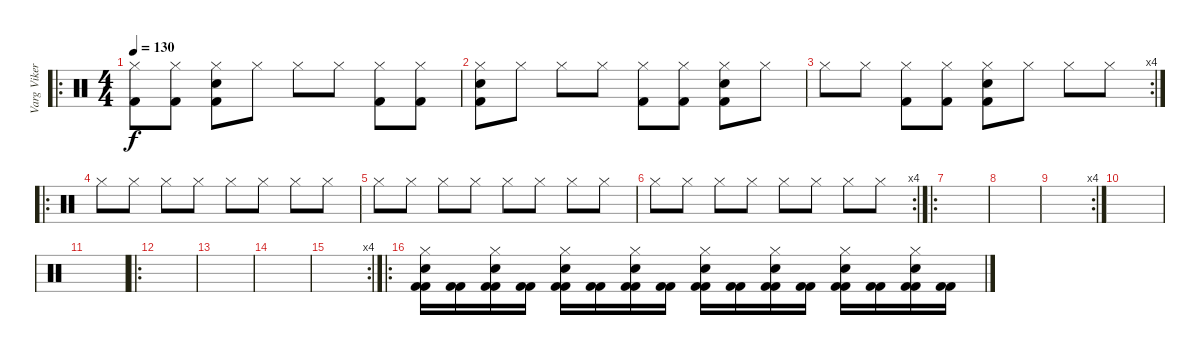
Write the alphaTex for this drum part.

\track ("Varg Vikernes (Drums)" "Varg Viker") {instrument percussion}
\staff {score}
\articulation defaults
\ro
\ts (4 4)
\tempo 130
\clef neutral
\ks c
("Hi-Hat (closed)" "Kick (hit) 2").8{dy f} ("Hi-Hat (closed)" "Kick (hit) 2").8 ("Hi-Hat (closed)" "Electric Snare (hit)" "Kick (hit) 2").8 "Hi-Hat (closed)".8 "Hi-Hat (closed)".8 "Hi-Hat (closed)".8 ("Hi-Hat (closed)" "Kick (hit) 2").8 ("Hi-Hat (closed)" "Kick (hit) 2").8 |
("Hi-Hat (closed)" "Electric Snare (hit)" "Kick (hit) 2").8 "Hi-Hat (closed)".8 "Hi-Hat (closed)".8 "Hi-Hat (closed)".8 ("Hi-Hat (closed)" "Kick (hit) 2").8 ("Hi-Hat (closed)" "Kick (hit) 2").8 ("Hi-Hat (closed)" "Electric Snare (hit)" "Kick (hit) 2").8 "Hi-Hat (closed)".8 |
\rc 4 "Hi-Hat (closed)".8 "Hi-Hat (closed)".8
("Hi-Hat (closed)" "Kick (hit) 2").8 ("Hi-Hat (closed)" "Kick (hit) 2").8 ("Hi-Hat (closed)" "Electric Snare (hit)" "Kick (hit) 2").8 "Hi-Hat (closed)".8 "Hi-Hat (closed)".8 "Hi-Hat (closed)".8 |
\ro "Hi-Hat (closed)".8 "Hi-Hat (closed)".8 "Hi-Hat (closed)".8 "Hi-Hat (closed)".8 "Hi-Hat (closed)".8 "Hi-Hat (closed)".8 "Hi-Hat (closed)".8 "Hi-Hat (closed)".8
|
"Hi-Hat (closed)".8 "Hi-Hat (closed)".8 "Hi-Hat (closed)".8 "Hi-Hat (closed)".8 "Hi-Hat (closed)".8 "Hi-Hat (closed)".8 "Hi-Hat (closed)".8 "Hi-Hat (closed)".8 |
\rc 4 "Hi-Hat (closed)".8 "Hi-Hat (closed)".8 "Hi-Hat (closed)".8 "Hi-Hat (closed)".8 "Hi-Hat (closed)".8 "Hi-Hat (closed)".8 "Hi-Hat (closed)".8 "Hi-Hat (closed)".8
|
\ro
|
|
\rc 4
|
|
|
\ro
|
|
|
\rc 4
|
\ro
("Kick (hit) 2" "Kick (hit) 2" "Electric Snare (hit)" "Hi-Hat (closed)").16 ("Kick (hit) 2" "Kick (hit) 2").16 ("Kick (hit) 2" "Kick (hit) 2" "Electric Snare (hit)" "Hi-Hat (closed)").16 ("Kick (hit) 2" "Kick (hit) 2").16 ("Kick (hit) 2" "Kick (hit) 2" "Electric Snare (hit)" "Hi-Hat (closed)").16 ("Kick (hit) 2" "Kick (hit) 2").16 ("Kick (hit) 2" "Kick (hit) 2" "Electric Snare (hit)" "Hi-Hat (closed)").16 ("Kick (hit) 2" "Kick (hit) 2").16 ("Kick (hit) 2" "Kick (hit) 2" "Electric Snare (hit)" "Hi-Hat (closed)").16 ("Kick (hit) 2" "Kick (hit) 2").16 ("Kick (hit) 2" "Kick (hit) 2" "Electric Snare (hit)" "Hi-Hat (closed)").16 ("Kick (hit) 2" "Kick (hit) 2").16 ("Kick (hit) 2" "Kick (hit) 2" "Electric Snare (hit)" "Hi-Hat (closed)").16 ("Kick (hit) 2" "Kick (hit) 2").16 ("Kick (hit) 2" "Kick (hit) 2" "Electric Snare (hit)" "Hi-Hat (closed)").16 ("Kick (hit) 2" "Kick (hit) 2").16
